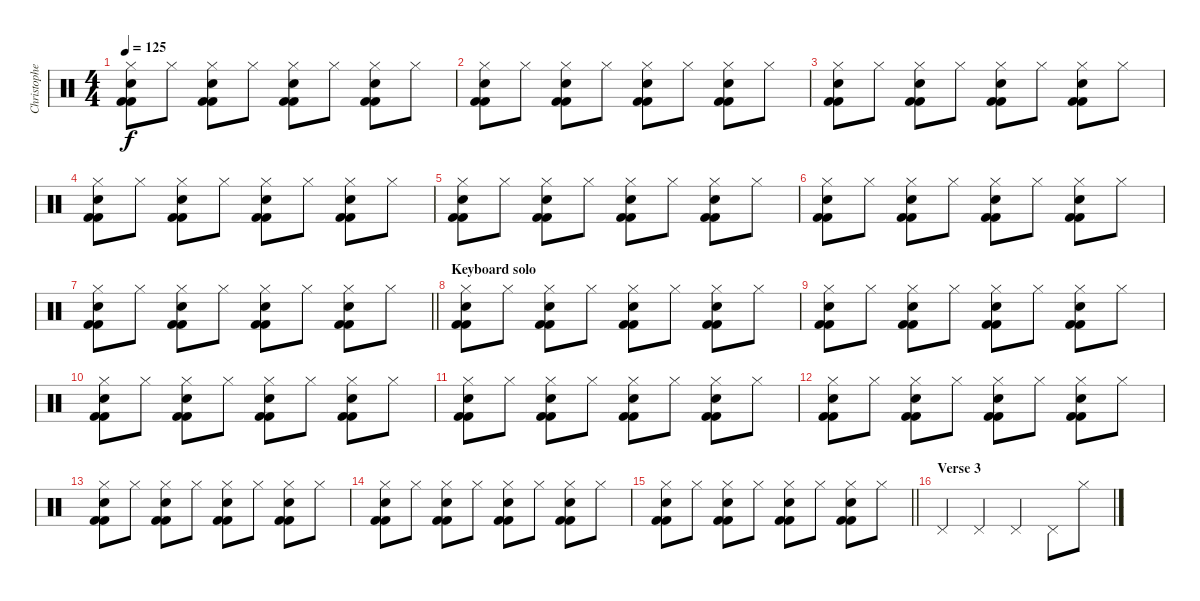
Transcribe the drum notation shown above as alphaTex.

\track ("Christopher S. (Drums)" "Christophe") {instrument percussion}
\staff {score}
\articulation defaults
\ts (4 4)
\tempo 125
\clef neutral
\ks c
("Hi-Hat (closed)" "Kick (hit) 2" "Kick (hit) 2" "Electric Snare (hit)").8{dy f} "Hi-Hat (closed)".8 ("Hi-Hat (closed)" "Kick (hit) 2" "Kick (hit) 2" "Electric Snare (hit)").8 "Hi-Hat (closed)".8 ("Hi-Hat (closed)" "Kick (hit) 2" "Kick (hit) 2" "Electric Snare (hit)").8 "Hi-Hat (closed)".8 ("Hi-Hat (closed)" "Kick (hit) 2" "Kick (hit) 2" "Electric Snare (hit)").8 "Hi-Hat (closed)".8 |
("Hi-Hat (closed)" "Kick (hit) 2" "Kick (hit) 2" "Electric Snare (hit)").8 "Hi-Hat (closed)".8 ("Hi-Hat (closed)" "Kick (hit) 2" "Kick (hit) 2" "Electric Snare (hit)").8 "Hi-Hat (closed)".8 ("Hi-Hat (closed)" "Kick (hit) 2" "Kick (hit) 2" "Electric Snare (hit)").8 "Hi-Hat (closed)".8 ("Hi-Hat (closed)" "Kick (hit) 2" "Kick (hit) 2" "Electric Snare (hit)").8 "Hi-Hat (closed)".8 |
("Hi-Hat (closed)" "Kick (hit) 2" "Kick (hit) 2" "Electric Snare (hit)").8 "Hi-Hat (closed)".8 ("Hi-Hat (closed)" "Kick (hit) 2" "Kick (hit) 2" "Electric Snare (hit)").8 "Hi-Hat (closed)".8 ("Hi-Hat (closed)" "Kick (hit) 2" "Kick (hit) 2" "Electric Snare (hit)").8 "Hi-Hat (closed)".8 ("Hi-Hat (closed)" "Kick (hit) 2" "Kick (hit) 2" "Electric Snare (hit)").8 "Hi-Hat (closed)".8 |
("Hi-Hat (closed)" "Kick (hit) 2" "Kick (hit) 2" "Electric Snare (hit)").8 "Hi-Hat (closed)".8 ("Hi-Hat (closed)" "Kick (hit) 2" "Kick (hit) 2" "Electric Snare (hit)").8 "Hi-Hat (closed)".8 ("Hi-Hat (closed)" "Kick (hit) 2" "Kick (hit) 2" "Electric Snare (hit)").8 "Hi-Hat (closed)".8 ("Hi-Hat (closed)" "Kick (hit) 2" "Kick (hit) 2" "Electric Snare (hit)").8 "Hi-Hat (closed)".8 |
("Hi-Hat (closed)" "Kick (hit) 2" "Kick (hit) 2" "Electric Snare (hit)").8 "Hi-Hat (closed)".8 ("Hi-Hat (closed)" "Kick (hit) 2" "Kick (hit) 2" "Electric Snare (hit)").8 "Hi-Hat (closed)".8 ("Hi-Hat (closed)" "Kick (hit) 2" "Kick (hit) 2" "Electric Snare (hit)").8 "Hi-Hat (closed)".8 ("Hi-Hat (closed)" "Kick (hit) 2" "Kick (hit) 2" "Electric Snare (hit)").8 "Hi-Hat (closed)".8 |
("Hi-Hat (closed)" "Kick (hit) 2" "Kick (hit) 2" "Electric Snare (hit)").8 "Hi-Hat (closed)".8 ("Hi-Hat (closed)" "Kick (hit) 2" "Kick (hit) 2" "Electric Snare (hit)").8 "Hi-Hat (closed)".8 ("Hi-Hat (closed)" "Kick (hit) 2" "Kick (hit) 2" "Electric Snare (hit)").8 "Hi-Hat (closed)".8 ("Hi-Hat (closed)" "Kick (hit) 2" "Kick (hit) 2" "Electric Snare (hit)").8 "Hi-Hat (closed)".8 |
\barLineRight lightlight
("Hi-Hat (closed)" "Kick (hit) 2" "Kick (hit) 2" "Electric Snare (hit)").8 "Hi-Hat (closed)".8 ("Hi-Hat (closed)" "Kick (hit) 2" "Kick (hit) 2" "Electric Snare (hit)").8 "Hi-Hat (closed)".8 ("Hi-Hat (closed)" "Kick (hit) 2" "Kick (hit) 2" "Electric Snare (hit)").8 "Hi-Hat (closed)".8 ("Hi-Hat (closed)" "Kick (hit) 2" "Kick (hit) 2" "Electric Snare (hit)").8 "Hi-Hat (closed)".8 |
\section ("" "Keyboard solo")
("Hi-Hat (closed)" "Kick (hit) 2" "Kick (hit) 2" "Electric Snare (hit)").8 "Hi-Hat (closed)".8 ("Hi-Hat (closed)" "Kick (hit) 2" "Kick (hit) 2" "Electric Snare (hit)").8 "Hi-Hat (closed)".8 ("Hi-Hat (closed)" "Kick (hit) 2" "Kick (hit) 2" "Electric Snare (hit)").8 "Hi-Hat (closed)".8 ("Hi-Hat (closed)" "Kick (hit) 2" "Kick (hit) 2" "Electric Snare (hit)").8 "Hi-Hat (closed)".8 |
("Hi-Hat (closed)" "Kick (hit) 2" "Kick (hit) 2" "Electric Snare (hit)").8 "Hi-Hat (closed)".8 ("Hi-Hat (closed)" "Kick (hit) 2" "Kick (hit) 2" "Electric Snare (hit)").8 "Hi-Hat (closed)".8 ("Hi-Hat (closed)" "Kick (hit) 2" "Kick (hit) 2" "Electric Snare (hit)").8 "Hi-Hat (closed)".8 ("Hi-Hat (closed)" "Kick (hit) 2" "Kick (hit) 2" "Electric Snare (hit)").8 "Hi-Hat (closed)".8 |
("Hi-Hat (closed)" "Kick (hit) 2" "Kick (hit) 2" "Electric Snare (hit)").8 "Hi-Hat (closed)".8 ("Hi-Hat (closed)" "Kick (hit) 2" "Kick (hit) 2" "Electric Snare (hit)").8 "Hi-Hat (closed)".8 ("Hi-Hat (closed)" "Kick (hit) 2" "Kick (hit) 2" "Electric Snare (hit)").8 "Hi-Hat (closed)".8 ("Hi-Hat (closed)" "Kick (hit) 2" "Kick (hit) 2" "Electric Snare (hit)").8 "Hi-Hat (closed)".8 |
("Hi-Hat (closed)" "Kick (hit) 2" "Kick (hit) 2" "Electric Snare (hit)").8 "Hi-Hat (closed)".8 ("Hi-Hat (closed)" "Kick (hit) 2" "Kick (hit) 2" "Electric Snare (hit)").8 "Hi-Hat (closed)".8 ("Hi-Hat (closed)" "Kick (hit) 2" "Kick (hit) 2" "Electric Snare (hit)").8 "Hi-Hat (closed)".8 ("Hi-Hat (closed)" "Kick (hit) 2" "Kick (hit) 2" "Electric Snare (hit)").8 "Hi-Hat (closed)".8 |
("Hi-Hat (closed)" "Kick (hit) 2" "Kick (hit) 2" "Electric Snare (hit)").8 "Hi-Hat (closed)".8 ("Hi-Hat (closed)" "Kick (hit) 2" "Kick (hit) 2" "Electric Snare (hit)").8 "Hi-Hat (closed)".8 ("Hi-Hat (closed)" "Kick (hit) 2" "Kick (hit) 2" "Electric Snare (hit)").8 "Hi-Hat (closed)".8 ("Hi-Hat (closed)" "Kick (hit) 2" "Kick (hit) 2" "Electric Snare (hit)").8 "Hi-Hat (closed)".8 |
("Hi-Hat (closed)" "Kick (hit) 2" "Kick (hit) 2" "Electric Snare (hit)").8 "Hi-Hat (closed)".8 ("Hi-Hat (closed)" "Kick (hit) 2" "Kick (hit) 2" "Electric Snare (hit)").8 "Hi-Hat (closed)".8 ("Hi-Hat (closed)" "Kick (hit) 2" "Kick (hit) 2" "Electric Snare (hit)").8 "Hi-Hat (closed)".8 ("Hi-Hat (closed)" "Kick (hit) 2" "Kick (hit) 2" "Electric Snare (hit)").8 "Hi-Hat (closed)".8 |
("Hi-Hat (closed)" "Kick (hit) 2" "Kick (hit) 2" "Electric Snare (hit)").8 "Hi-Hat (closed)".8 ("Hi-Hat (closed)" "Kick (hit) 2" "Kick (hit) 2" "Electric Snare (hit)").8 "Hi-Hat (closed)".8 ("Hi-Hat (closed)" "Kick (hit) 2" "Kick (hit) 2" "Electric Snare (hit)").8 "Hi-Hat (closed)".8 ("Hi-Hat (closed)" "Kick (hit) 2" "Kick (hit) 2" "Electric Snare (hit)").8 "Hi-Hat (closed)".8 |
\barLineRight lightlight
("Hi-Hat (closed)" "Kick (hit) 2" "Kick (hit) 2" "Electric Snare (hit)").8 "Hi-Hat (closed)".8 ("Hi-Hat (closed)" "Kick (hit) 2" "Kick (hit) 2" "Electric Snare (hit)").8 "Hi-Hat (closed)".8 ("Hi-Hat (closed)" "Kick (hit) 2" "Kick (hit) 2" "Electric Snare (hit)").8 "Hi-Hat (closed)".8 ("Hi-Hat (closed)" "Kick (hit) 2" "Kick (hit) 2" "Electric Snare (hit)").8 "Hi-Hat (closed)".8 |
\section ("" "Verse 3")
"Pedal Hi-Hat (hit)".4 "Pedal Hi-Hat (hit)".4 "Pedal Hi-Hat (hit)".4 "Pedal Hi-Hat (hit)".8 "Hi-Hat (closed)".8
